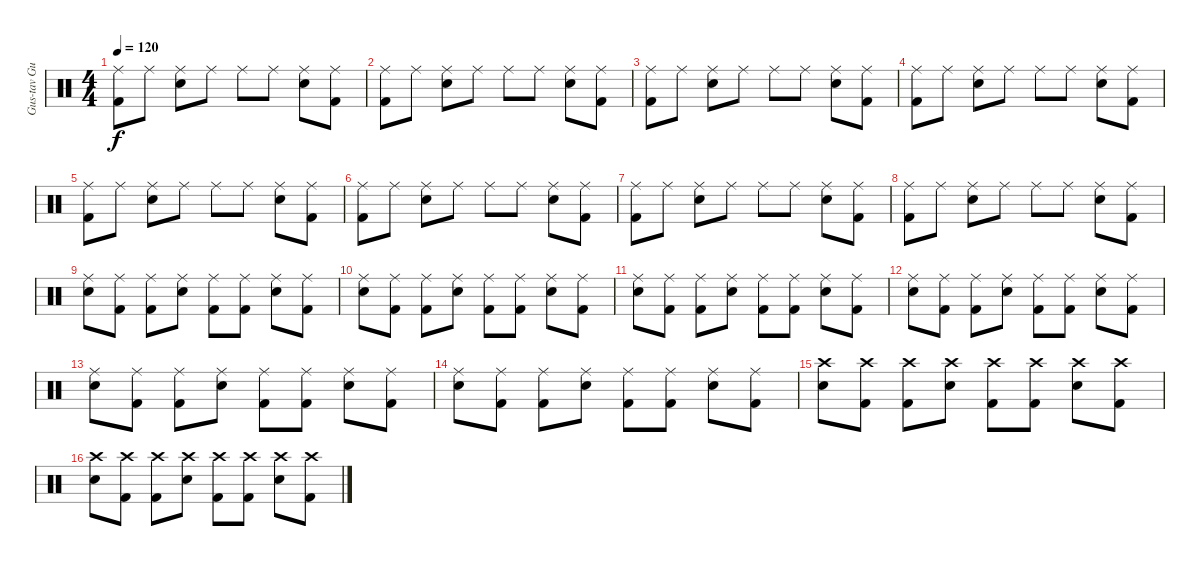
\track ("Gus-tav Gus-Gus-tav" "Gus-tav Gu") {instrument percussion}
\staff {score}
\articulation defaults
\ts (4 4)
\tempo 120
\clef neutral
\ks c
("Kick (hit) 2" "Ride (middle)").8{dy f} "Ride (middle)".8 ("Ride (middle)" "Snare (hit) 2").8 "Ride (middle)".8 "Ride (middle)".8 "Ride (middle)".8 ("Snare (hit) 2" "Ride (middle)").8 ("Ride (middle)" "Kick (hit) 2").8 |
("Kick (hit) 2" "Ride (middle)").8 "Ride (middle)".8 ("Ride (middle)" "Snare (hit) 2").8 "Ride (middle)".8 "Ride (middle)".8 "Ride (middle)".8 ("Snare (hit) 2" "Ride (middle)").8 ("Ride (middle)" "Kick (hit) 2").8 |
("Kick (hit) 2" "Ride (middle)").8 "Ride (middle)".8 ("Ride (middle)" "Snare (hit) 2").8 "Ride (middle)".8 "Ride (middle)".8 "Ride (middle)".8 ("Snare (hit) 2" "Ride (middle)").8 ("Ride (middle)" "Kick (hit) 2").8 |
("Kick (hit) 2" "Ride (middle)").8 "Ride (middle)".8 ("Ride (middle)" "Snare (hit) 2").8 "Ride (middle)".8 "Ride (middle)".8 "Ride (middle)".8 ("Snare (hit) 2" "Ride (middle)").8 ("Ride (middle)" "Kick (hit) 2").8 |
("Kick (hit) 2" "Ride (middle)").8 "Ride (middle)".8 ("Ride (middle)" "Snare (hit) 2").8 "Ride (middle)".8 "Ride (middle)".8 "Ride (middle)".8 ("Snare (hit) 2" "Ride (middle)").8 ("Ride (middle)" "Kick (hit) 2").8 |
("Kick (hit) 2" "Ride (middle)").8 "Ride (middle)".8 ("Ride (middle)" "Snare (hit) 2").8 "Ride (middle)".8 "Ride (middle)".8 "Ride (middle)".8 ("Snare (hit) 2" "Ride (middle)").8 ("Ride (middle)" "Kick (hit) 2").8 |
("Kick (hit) 2" "Ride (middle)").8 "Ride (middle)".8 ("Ride (middle)" "Snare (hit) 2").8 "Ride (middle)".8 "Ride (middle)".8 "Ride (middle)".8 ("Snare (hit) 2" "Ride (middle)").8 ("Ride (middle)" "Kick (hit) 2").8 |
("Kick (hit) 2" "Ride (middle)").8 "Ride (middle)".8 ("Ride (middle)" "Snare (hit) 2").8 "Ride (middle)".8 "Ride (middle)".8 "Ride (middle)".8 ("Snare (hit) 2" "Ride (middle)").8 ("Ride (middle)" "Kick (hit) 2").8 |
("Snare (hit) 2" "Ride (middle)").8 ("Kick (hit) 2" "Ride (middle)").8 ("Ride (middle)" "Kick (hit) 2").8 ("Snare (hit) 2" "Ride (middle)").8 ("Kick (hit) 2" "Ride (middle)").8 ("Kick (hit) 2" "Ride (middle)").8 ("Snare (hit) 2" "Ride (middle)").8 ("Ride (middle)" "Kick (hit) 2").8 |
("Snare (hit) 2" "Ride (middle)").8 ("Kick (hit) 2" "Ride (middle)").8 ("Ride (middle)" "Kick (hit) 2").8 ("Snare (hit) 2" "Ride (middle)").8 ("Kick (hit) 2" "Ride (middle)").8 ("Kick (hit) 2" "Ride (middle)").8 ("Snare (hit) 2" "Ride (middle)").8 ("Ride (middle)" "Kick (hit) 2").8 |
("Snare (hit) 2" "Ride (middle)").8 ("Kick (hit) 2" "Ride (middle)").8 ("Ride (middle)" "Kick (hit) 2").8 ("Snare (hit) 2" "Ride (middle)").8 ("Kick (hit) 2" "Ride (middle)").8 ("Kick (hit) 2" "Ride (middle)").8 ("Snare (hit) 2" "Ride (middle)").8 ("Ride (middle)" "Kick (hit) 2").8 |
("Snare (hit) 2" "Ride (middle)").8 ("Kick (hit) 2" "Ride (middle)").8 ("Ride (middle)" "Kick (hit) 2").8 ("Snare (hit) 2" "Ride (middle)").8 ("Kick (hit) 2" "Ride (middle)").8 ("Kick (hit) 2" "Ride (middle)").8 ("Snare (hit) 2" "Ride (middle)").8 ("Ride (middle)" "Kick (hit) 2").8 |
("Snare (hit) 2" "Ride (middle)").8 ("Kick (hit) 2" "Ride (middle)").8 ("Ride (middle)" "Kick (hit) 2").8 ("Snare (hit) 2" "Ride (middle)").8 ("Kick (hit) 2" "Ride (middle)").8 ("Kick (hit) 2" "Ride (middle)").8 ("Snare (hit) 2" "Ride (middle)").8 ("Ride (middle)" "Kick (hit) 2").8 |
("Snare (hit) 2" "Ride (middle)").8 ("Kick (hit) 2" "Ride (middle)").8 ("Ride (middle)" "Kick (hit) 2").8 ("Snare (hit) 2" "Ride (middle)").8 ("Kick (hit) 2" "Ride (middle)").8 ("Kick (hit) 2" "Ride (middle)").8 ("Snare (hit) 2" "Ride (middle)").8 ("Ride (middle)" "Kick (hit) 2").8 |
("Snare (hit) 2" "Crash high (hit)").8 ("Kick (hit) 2" "Crash high (hit)").8 ("Crash high (hit)" "Kick (hit) 2").8 ("Snare (hit) 2" "Crash high (hit)").8 ("Kick (hit) 2" "Crash high (hit)").8 ("Kick (hit) 2" "Crash high (hit)").8 ("Snare (hit) 2" "Crash high (hit)").8 ("Crash high (hit)" "Kick (hit) 2").8 |
("Snare (hit) 2" "Crash high (hit)").8 ("Kick (hit) 2" "Crash high (hit)").8 ("Crash high (hit)" "Kick (hit) 2").8 ("Snare (hit) 2" "Crash high (hit)").8 ("Kick (hit) 2" "Crash high (hit)").8 ("Kick (hit) 2" "Crash high (hit)").8 ("Snare (hit) 2" "Crash high (hit)").8 ("Crash high (hit)" "Kick (hit) 2").8
